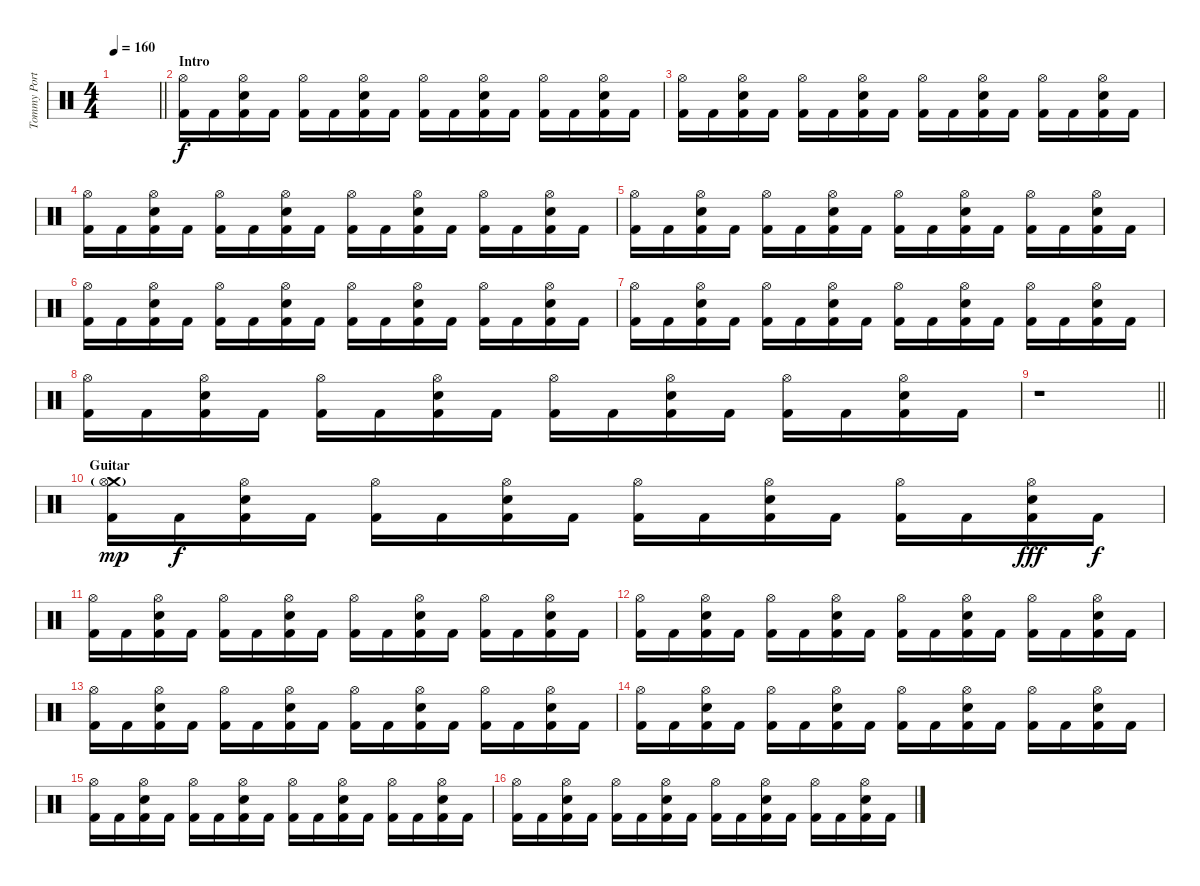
\track ("Tommy Portino" "Tommy Port") {instrument percussion}
\staff {score}
\articulation defaults
\ts (4 4)
\tempo 160
\clef neutral
\barLineRight lightlight
\ks c
|
\section ("" "Intro")
("Hi-Hat (open)" "Kick (hit) 2").16 "Kick (hit) 2".16 ("Hi-Hat (open)" "Snare (hit) 2" "Kick (hit) 2").16 "Kick (hit) 2".16 ("Hi-Hat (open)" "Kick (hit) 2").16 "Kick (hit) 2".16 ("Hi-Hat (open)" "Snare (hit) 2" "Kick (hit) 2").16 "Kick (hit) 2".16 ("Hi-Hat (open)" "Kick (hit) 2").16 "Kick (hit) 2".16 ("Hi-Hat (open)" "Snare (hit) 2" "Kick (hit) 2").16 "Kick (hit) 2".16 ("Hi-Hat (open)" "Kick (hit) 2").16 "Kick (hit) 2".16 ("Hi-Hat (open)" "Snare (hit) 2" "Kick (hit) 2").16 "Kick (hit) 2".16 |
("Hi-Hat (open)" "Kick (hit) 2").16 "Kick (hit) 2".16 ("Hi-Hat (open)" "Snare (hit) 2" "Kick (hit) 2").16 "Kick (hit) 2".16 ("Hi-Hat (open)" "Kick (hit) 2").16 "Kick (hit) 2".16 ("Hi-Hat (open)" "Snare (hit) 2" "Kick (hit) 2").16 "Kick (hit) 2".16 ("Hi-Hat (open)" "Kick (hit) 2").16 "Kick (hit) 2".16 ("Hi-Hat (open)" "Snare (hit) 2" "Kick (hit) 2").16 "Kick (hit) 2".16 ("Hi-Hat (open)" "Kick (hit) 2").16 "Kick (hit) 2".16 ("Hi-Hat (open)" "Snare (hit) 2" "Kick (hit) 2").16 "Kick (hit) 2".16 |
("Hi-Hat (open)" "Kick (hit) 2").16 "Kick (hit) 2".16 ("Hi-Hat (open)" "Snare (hit) 2" "Kick (hit) 2").16 "Kick (hit) 2".16 ("Hi-Hat (open)" "Kick (hit) 2").16 "Kick (hit) 2".16 ("Hi-Hat (open)" "Snare (hit) 2" "Kick (hit) 2").16 "Kick (hit) 2".16 ("Hi-Hat (open)" "Kick (hit) 2").16 "Kick (hit) 2".16 ("Hi-Hat (open)" "Snare (hit) 2" "Kick (hit) 2").16 "Kick (hit) 2".16 ("Hi-Hat (open)" "Kick (hit) 2").16 "Kick (hit) 2".16 ("Hi-Hat (open)" "Snare (hit) 2" "Kick (hit) 2").16 "Kick (hit) 2".16 |
("Hi-Hat (open)" "Kick (hit) 2").16 "Kick (hit) 2".16 ("Hi-Hat (open)" "Snare (hit) 2" "Kick (hit) 2").16 "Kick (hit) 2".16 ("Hi-Hat (open)" "Kick (hit) 2").16 "Kick (hit) 2".16 ("Hi-Hat (open)" "Snare (hit) 2" "Kick (hit) 2").16 "Kick (hit) 2".16 ("Hi-Hat (open)" "Kick (hit) 2").16 "Kick (hit) 2".16 ("Hi-Hat (open)" "Snare (hit) 2" "Kick (hit) 2").16 "Kick (hit) 2".16 ("Hi-Hat (open)" "Kick (hit) 2").16 "Kick (hit) 2".16 ("Hi-Hat (open)" "Snare (hit) 2" "Kick (hit) 2").16 "Kick (hit) 2".16 |
("Hi-Hat (open)" "Kick (hit) 2").16 "Kick (hit) 2".16 ("Hi-Hat (open)" "Snare (hit) 2" "Kick (hit) 2").16 "Kick (hit) 2".16 ("Hi-Hat (open)" "Kick (hit) 2").16 "Kick (hit) 2".16 ("Hi-Hat (open)" "Snare (hit) 2" "Kick (hit) 2").16 "Kick (hit) 2".16 ("Hi-Hat (open)" "Kick (hit) 2").16 "Kick (hit) 2".16 ("Hi-Hat (open)" "Snare (hit) 2" "Kick (hit) 2").16 "Kick (hit) 2".16 ("Hi-Hat (open)" "Kick (hit) 2").16 "Kick (hit) 2".16 ("Hi-Hat (open)" "Snare (hit) 2" "Kick (hit) 2").16 "Kick (hit) 2".16 |
("Hi-Hat (open)" "Kick (hit) 2").16 "Kick (hit) 2".16 ("Hi-Hat (open)" "Snare (hit) 2" "Kick (hit) 2").16 "Kick (hit) 2".16 ("Hi-Hat (open)" "Kick (hit) 2").16 "Kick (hit) 2".16 ("Hi-Hat (open)" "Snare (hit) 2" "Kick (hit) 2").16 "Kick (hit) 2".16 ("Hi-Hat (open)" "Kick (hit) 2").16 "Kick (hit) 2".16 ("Hi-Hat (open)" "Snare (hit) 2" "Kick (hit) 2").16 "Kick (hit) 2".16 ("Hi-Hat (open)" "Kick (hit) 2").16 "Kick (hit) 2".16 ("Hi-Hat (open)" "Snare (hit) 2" "Kick (hit) 2").16 "Kick (hit) 2".16 |
("Hi-Hat (open)" "Kick (hit) 2").16 "Kick (hit) 2".16 ("Hi-Hat (open)" "Snare (hit) 2" "Kick (hit) 2").16 "Kick (hit) 2".16 ("Hi-Hat (open)" "Kick (hit) 2").16 "Kick (hit) 2".16 ("Hi-Hat (open)" "Snare (hit) 2" "Kick (hit) 2").16 "Kick (hit) 2".16 ("Hi-Hat (open)" "Kick (hit) 2").16 "Kick (hit) 2".16 ("Hi-Hat (open)" "Snare (hit) 2" "Kick (hit) 2").16 "Kick (hit) 2".16 ("Hi-Hat (open)" "Kick (hit) 2").16 "Kick (hit) 2".16 ("Hi-Hat (open)" "Snare (hit) 2" "Kick (hit) 2").16 "Kick (hit) 2".16 |
\barLineRight lightlight
r.1{volume 0} |
\section ("" "Guitar")
("Crash medium (hit)" "Hi-Hat (open)"{g} "Kick (hit) 2").16{dy mp volume 16} "Kick (hit) 2".16{dy f} ("Hi-Hat (open)" "Snare (hit) 2" "Kick (hit) 2").16 "Kick (hit) 2".16 ("Hi-Hat (open)" "Kick (hit) 2").16 "Kick (hit) 2".16 ("Hi-Hat (open)" "Snare (hit) 2" "Kick (hit) 2").16 "Kick (hit) 2".16 ("Hi-Hat (open)" "Kick (hit) 2").16 "Kick (hit) 2".16 ("Hi-Hat (open)" "Snare (hit) 2" "Kick (hit) 2").16 "Kick (hit) 2".16 ("Hi-Hat (open)" "Kick (hit) 2").16 "Kick (hit) 2".16 ("Hi-Hat (open)" "Snare (hit) 2" "Kick (hit) 2").16{dy fff} "Kick (hit) 2".16{dy f} |
("Hi-Hat (open)" "Kick (hit) 2").16 "Kick (hit) 2".16 ("Hi-Hat (open)" "Snare (hit) 2" "Kick (hit) 2").16 "Kick (hit) 2".16 ("Hi-Hat (open)" "Kick (hit) 2").16 "Kick (hit) 2".16 ("Hi-Hat (open)" "Snare (hit) 2" "Kick (hit) 2").16 "Kick (hit) 2".16 ("Hi-Hat (open)" "Kick (hit) 2").16 "Kick (hit) 2".16 ("Hi-Hat (open)" "Snare (hit) 2" "Kick (hit) 2").16 "Kick (hit) 2".16 ("Hi-Hat (open)" "Kick (hit) 2").16 "Kick (hit) 2".16 ("Hi-Hat (open)" "Snare (hit) 2" "Kick (hit) 2").16 "Kick (hit) 2".16 |
("Hi-Hat (open)" "Kick (hit) 2").16 "Kick (hit) 2".16 ("Hi-Hat (open)" "Snare (hit) 2" "Kick (hit) 2").16 "Kick (hit) 2".16 ("Hi-Hat (open)" "Kick (hit) 2").16 "Kick (hit) 2".16 ("Hi-Hat (open)" "Snare (hit) 2" "Kick (hit) 2").16 "Kick (hit) 2".16 ("Hi-Hat (open)" "Kick (hit) 2").16 "Kick (hit) 2".16 ("Hi-Hat (open)" "Snare (hit) 2" "Kick (hit) 2").16 "Kick (hit) 2".16 ("Hi-Hat (open)" "Kick (hit) 2").16 "Kick (hit) 2".16 ("Hi-Hat (open)" "Snare (hit) 2" "Kick (hit) 2").16 "Kick (hit) 2".16 |
("Hi-Hat (open)" "Kick (hit) 2").16 "Kick (hit) 2".16 ("Hi-Hat (open)" "Snare (hit) 2" "Kick (hit) 2").16 "Kick (hit) 2".16 ("Hi-Hat (open)" "Kick (hit) 2").16 "Kick (hit) 2".16 ("Hi-Hat (open)" "Snare (hit) 2" "Kick (hit) 2").16 "Kick (hit) 2".16 ("Hi-Hat (open)" "Kick (hit) 2").16 "Kick (hit) 2".16 ("Hi-Hat (open)" "Snare (hit) 2" "Kick (hit) 2").16 "Kick (hit) 2".16 ("Hi-Hat (open)" "Kick (hit) 2").16 "Kick (hit) 2".16 ("Hi-Hat (open)" "Snare (hit) 2" "Kick (hit) 2").16 "Kick (hit) 2".16 |
("Hi-Hat (open)" "Kick (hit) 2").16 "Kick (hit) 2".16 ("Hi-Hat (open)" "Snare (hit) 2" "Kick (hit) 2").16 "Kick (hit) 2".16 ("Hi-Hat (open)" "Kick (hit) 2").16 "Kick (hit) 2".16 ("Hi-Hat (open)" "Snare (hit) 2" "Kick (hit) 2").16 "Kick (hit) 2".16 ("Hi-Hat (open)" "Kick (hit) 2").16 "Kick (hit) 2".16 ("Hi-Hat (open)" "Snare (hit) 2" "Kick (hit) 2").16 "Kick (hit) 2".16 ("Hi-Hat (open)" "Kick (hit) 2").16 "Kick (hit) 2".16 ("Hi-Hat (open)" "Snare (hit) 2" "Kick (hit) 2").16 "Kick (hit) 2".16 |
("Hi-Hat (open)" "Kick (hit) 2").16 "Kick (hit) 2".16 ("Hi-Hat (open)" "Snare (hit) 2" "Kick (hit) 2").16 "Kick (hit) 2".16 ("Hi-Hat (open)" "Kick (hit) 2").16 "Kick (hit) 2".16 ("Hi-Hat (open)" "Snare (hit) 2" "Kick (hit) 2").16 "Kick (hit) 2".16 ("Hi-Hat (open)" "Kick (hit) 2").16 "Kick (hit) 2".16 ("Hi-Hat (open)" "Snare (hit) 2" "Kick (hit) 2").16 "Kick (hit) 2".16 ("Hi-Hat (open)" "Kick (hit) 2").16 "Kick (hit) 2".16 ("Hi-Hat (open)" "Snare (hit) 2" "Kick (hit) 2").16 "Kick (hit) 2".16 |
("Hi-Hat (open)" "Kick (hit) 2").16 "Kick (hit) 2".16 ("Hi-Hat (open)" "Snare (hit) 2" "Kick (hit) 2").16 "Kick (hit) 2".16 ("Hi-Hat (open)" "Kick (hit) 2").16 "Kick (hit) 2".16 ("Hi-Hat (open)" "Snare (hit) 2" "Kick (hit) 2").16 "Kick (hit) 2".16 ("Hi-Hat (open)" "Kick (hit) 2").16 "Kick (hit) 2".16 ("Hi-Hat (open)" "Snare (hit) 2" "Kick (hit) 2").16 "Kick (hit) 2".16 ("Hi-Hat (open)" "Kick (hit) 2").16 "Kick (hit) 2".16 ("Hi-Hat (open)" "Snare (hit) 2" "Kick (hit) 2").16 "Kick (hit) 2".16
